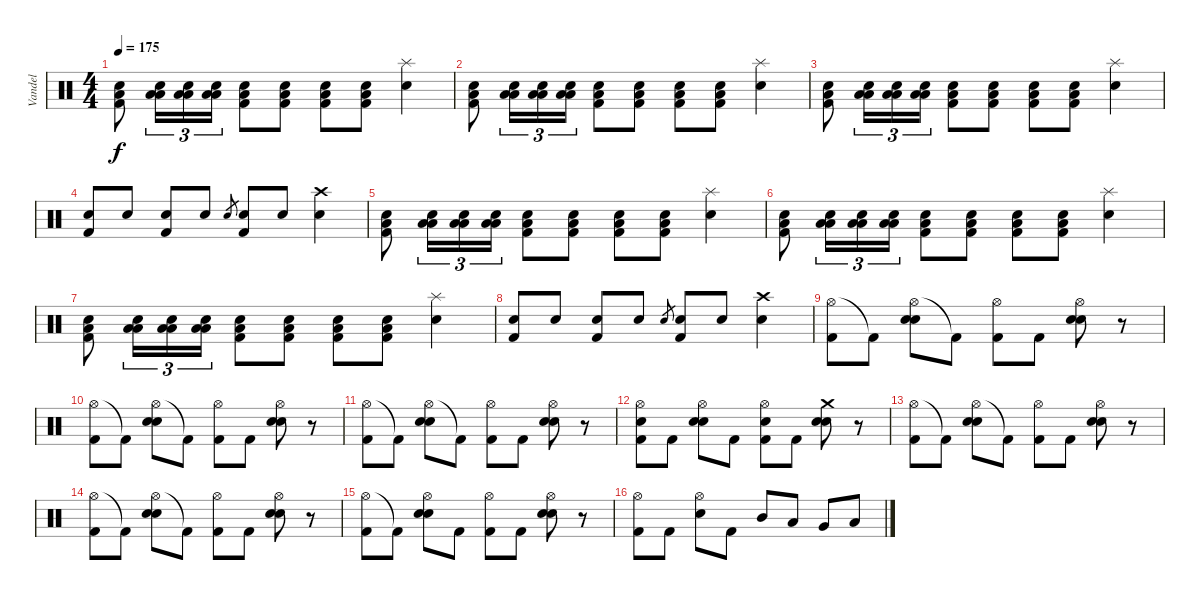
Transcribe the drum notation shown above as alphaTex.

\track ("Vandel" "Vandel") {instrument percussion}
\staff {score}
\articulation defaults
\ts (4 4)
\tempo 175
\clef neutral
\ks c
("Low Floor Tom (hit)" "Kick (hit) 2" "Electric Snare (hit)").8{dy f} ("Low Floor Tom (hit)" "Low Floor Tom (hit)" "Electric Snare (hit)").16{tu (3 2)} ("Low Floor Tom (hit)" "Low Floor Tom (hit)" "Electric Snare (hit)").16{tu (3 2)} ("Low Floor Tom (hit)" "Low Floor Tom (hit)" "Electric Snare (hit)").16{tu (3 2)} ("Low Floor Tom (hit)" "Kick (hit) 2" "Electric Snare (hit)").8 ("Low Floor Tom (hit)" "Kick (hit) 2" "Electric Snare (hit)").8 ("Low Floor Tom (hit)" "Kick (hit) 2" "Electric Snare (hit)").8 ("Low Floor Tom (hit)" "Kick (hit) 2" "Electric Snare (hit)").8 ("Splash (hit)" "Electric Snare (hit)").4 |
("Low Floor Tom (hit)" "Kick (hit) 2" "Electric Snare (hit)").8 ("Low Floor Tom (hit)" "Low Floor Tom (hit)" "Electric Snare (hit)").16{tu (3 2)} ("Low Floor Tom (hit)" "Low Floor Tom (hit)" "Electric Snare (hit)").16{tu (3 2)} ("Low Floor Tom (hit)" "Low Floor Tom (hit)" "Electric Snare (hit)").16{tu (3 2)} ("Low Floor Tom (hit)" "Kick (hit) 2" "Electric Snare (hit)").8 ("Low Floor Tom (hit)" "Kick (hit) 2" "Electric Snare (hit)").8 ("Low Floor Tom (hit)" "Kick (hit) 2" "Electric Snare (hit)").8 ("Low Floor Tom (hit)" "Kick (hit) 2" "Electric Snare (hit)").8 ("Splash (hit)" "Electric Snare (hit)").4 |
("Low Floor Tom (hit)" "Kick (hit) 2" "Electric Snare (hit)").8 ("Low Floor Tom (hit)" "Low Floor Tom (hit)" "Electric Snare (hit)").16{tu (3 2)} ("Low Floor Tom (hit)" "Low Floor Tom (hit)" "Electric Snare (hit)").16{tu (3 2)} ("Low Floor Tom (hit)" "Low Floor Tom (hit)" "Electric Snare (hit)").16{tu (3 2)} ("Low Floor Tom (hit)" "Kick (hit) 2" "Electric Snare (hit)").8 ("Low Floor Tom (hit)" "Kick (hit) 2" "Electric Snare (hit)").8 ("Low Floor Tom (hit)" "Kick (hit) 2" "Electric Snare (hit)").8 ("Low Floor Tom (hit)" "Kick (hit) 2" "Electric Snare (hit)").8 ("Splash (hit)" "Electric Snare (hit)").4 |
("Kick (hit) 2" "Electric Snare (hit)").8 "Electric Snare (hit)".8 ("Kick (hit) 2" "Electric Snare (hit)").8 "Electric Snare (hit)".8 "Electric Snare (hit)".8{gr} ("Kick (hit) 2" "Electric Snare (hit)").8 "Electric Snare (hit)".8 ("Crash high (hit)" "Electric Snare (hit)").4 |
("Low Floor Tom (hit)" "Kick (hit) 2" "Electric Snare (hit)").8 ("Low Floor Tom (hit)" "Low Floor Tom (hit)" "Electric Snare (hit)").16{tu (3 2)} ("Low Floor Tom (hit)" "Low Floor Tom (hit)" "Electric Snare (hit)").16{tu (3 2)} ("Low Floor Tom (hit)" "Low Floor Tom (hit)" "Electric Snare (hit)").16{tu (3 2)} ("Low Floor Tom (hit)" "Kick (hit) 2" "Electric Snare (hit)").8 ("Low Floor Tom (hit)" "Kick (hit) 2" "Electric Snare (hit)").8 ("Low Floor Tom (hit)" "Kick (hit) 2" "Electric Snare (hit)").8 ("Low Floor Tom (hit)" "Kick (hit) 2" "Electric Snare (hit)").8 ("Splash (hit)" "Electric Snare (hit)").4 |
("Low Floor Tom (hit)" "Kick (hit) 2" "Electric Snare (hit)").8 ("Low Floor Tom (hit)" "Low Floor Tom (hit)" "Electric Snare (hit)").16{tu (3 2)} ("Low Floor Tom (hit)" "Low Floor Tom (hit)" "Electric Snare (hit)").16{tu (3 2)} ("Low Floor Tom (hit)" "Low Floor Tom (hit)" "Electric Snare (hit)").16{tu (3 2)} ("Low Floor Tom (hit)" "Kick (hit) 2" "Electric Snare (hit)").8 ("Low Floor Tom (hit)" "Kick (hit) 2" "Electric Snare (hit)").8 ("Low Floor Tom (hit)" "Kick (hit) 2" "Electric Snare (hit)").8 ("Low Floor Tom (hit)" "Kick (hit) 2" "Electric Snare (hit)").8 ("Splash (hit)" "Electric Snare (hit)").4 |
("Low Floor Tom (hit)" "Kick (hit) 2" "Electric Snare (hit)").8 ("Low Floor Tom (hit)" "Low Floor Tom (hit)" "Electric Snare (hit)").16{tu (3 2)} ("Low Floor Tom (hit)" "Low Floor Tom (hit)" "Electric Snare (hit)").16{tu (3 2)} ("Low Floor Tom (hit)" "Low Floor Tom (hit)" "Electric Snare (hit)").16{tu (3 2)} ("Low Floor Tom (hit)" "Kick (hit) 2" "Electric Snare (hit)").8 ("Low Floor Tom (hit)" "Kick (hit) 2" "Electric Snare (hit)").8 ("Low Floor Tom (hit)" "Kick (hit) 2" "Electric Snare (hit)").8 ("Low Floor Tom (hit)" "Kick (hit) 2" "Electric Snare (hit)").8 ("Splash (hit)" "Electric Snare (hit)").4 |
("Kick (hit) 2" "Electric Snare (hit)").8 "Electric Snare (hit)".8 ("Kick (hit) 2" "Electric Snare (hit)").8 "Electric Snare (hit)".8 "Electric Snare (hit)".8{gr} ("Kick (hit) 2" "Electric Snare (hit)").8 "Electric Snare (hit)".8 ("Crash high (hit)" "Electric Snare (hit)").4 |
("Hi-Hat (open)" "Kick (hit) 2").8 "Kick (hit) 2"{t}.8 ("Hi-Hat (open)" "Electric Snare (hit)" "Electric Snare (hit)").8 "Kick (hit) 2"{t}.8 ("Hi-Hat (open)" "Kick (hit) 2").8 "Kick (hit) 2".8 ("Hi-Hat (open)" "Electric Snare (hit)" "Electric Snare (hit)").8 r.8 |
("Hi-Hat (open)" "Kick (hit) 2").8 "Kick (hit) 2"{t}.8 ("Hi-Hat (open)" "Electric Snare (hit)" "Electric Snare (hit)").8 "Kick (hit) 2"{t}.8 ("Hi-Hat (open)" "Kick (hit) 2").8 "Kick (hit) 2".8 ("Hi-Hat (open)" "Electric Snare (hit)" "Electric Snare (hit)").8 r.8 |
("Hi-Hat (open)" "Kick (hit) 2").8 "Kick (hit) 2"{t}.8 ("Hi-Hat (open)" "Electric Snare (hit)" "Electric Snare (hit)").8 "Kick (hit) 2"{t}.8 ("Hi-Hat (open)" "Kick (hit) 2").8 "Kick (hit) 2".8 ("Hi-Hat (open)" "Electric Snare (hit)" "Electric Snare (hit)").8 r.8 |
("Hi-Hat (open)" "Electric Snare (hit)" "Kick (hit) 2").8 "Kick (hit) 2".8 ("Hi-Hat (open)" "Electric Snare (hit)" "Electric Snare (hit)").8 "Kick (hit) 2".8 ("Hi-Hat (open)" "Electric Snare (hit)" "Kick (hit) 2").8 "Kick (hit) 2".8 ("Crash medium (hit)" "Electric Snare (hit)" "Electric Snare (hit)").8 r.8 |
("Hi-Hat (open)" "Kick (hit) 2").8 "Kick (hit) 2"{t}.8 ("Hi-Hat (open)" "Electric Snare (hit)" "Electric Snare (hit)").8 "Kick (hit) 2"{t}.8 ("Hi-Hat (open)" "Kick (hit) 2").8 "Kick (hit) 2".8 ("Hi-Hat (open)" "Electric Snare (hit)" "Electric Snare (hit)").8 r.8 |
("Hi-Hat (open)" "Kick (hit) 2").8 "Kick (hit) 2"{t}.8 ("Hi-Hat (open)" "Electric Snare (hit)" "Electric Snare (hit)").8 "Kick (hit) 2"{t}.8 ("Hi-Hat (open)" "Kick (hit) 2").8 "Kick (hit) 2".8 ("Hi-Hat (open)" "Electric Snare (hit)" "Electric Snare (hit)").8 r.8 |
("Hi-Hat (open)" "Kick (hit) 2").8 "Kick (hit) 2"{t}.8 ("Hi-Hat (open)" "Electric Snare (hit)" "Electric Snare (hit)").8 "Kick (hit) 2".8 ("Hi-Hat (open)" "Kick (hit) 2").8 "Kick (hit) 2".8 ("Hi-Hat (open)" "Electric Snare (hit)" "Electric Snare (hit)").8 r.8 |
("Hi-Hat (open)" "Kick (hit) 2").8 "Kick (hit) 2".8 ("Hi-Hat (open)" "Electric Snare (hit)").8 "Kick (hit) 2".8 "Mid Tom (hit)".8 "Low Tom (hit)".8 "Very Low Tom (hit)".8 "Low Floor Tom (hit)".8
